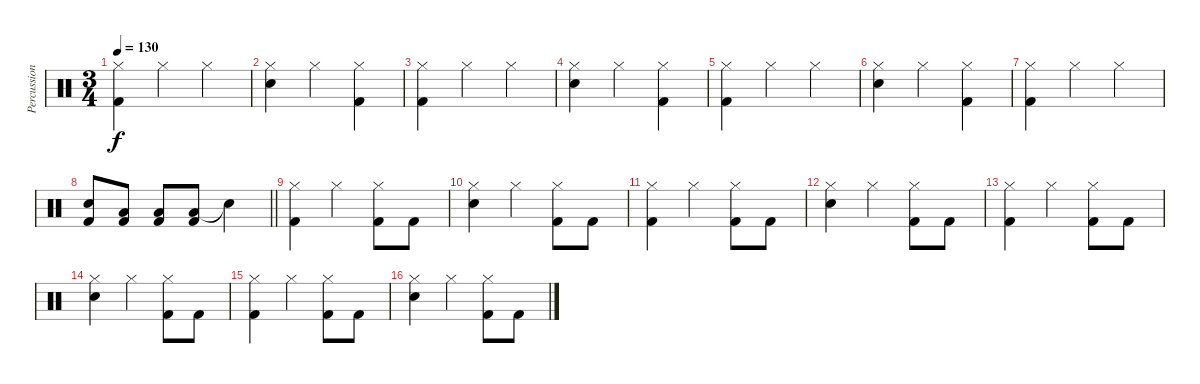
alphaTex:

\track ("Percussion" "Percussion") {instrument percussion}
\staff {score}
\articulation defaults
\ts (3 4)
\tempo 130
\clef neutral
\ks c
("Hi-Hat (closed)" "Kick (hit) 2").4{dy f} "Hi-Hat (closed)".4 "Hi-Hat (closed)".4 |
("Hi-Hat (closed)" "Electric Snare (hit)").4 "Hi-Hat (closed)".4 ("Hi-Hat (closed)" "Kick (hit) 2").4 |
("Hi-Hat (closed)" "Kick (hit) 2").4 "Hi-Hat (closed)".4 "Hi-Hat (closed)".4 |
("Hi-Hat (closed)" "Electric Snare (hit)").4 "Hi-Hat (closed)".4 ("Hi-Hat (closed)" "Kick (hit) 2").4 |
("Hi-Hat (closed)" "Kick (hit) 2").4 "Hi-Hat (closed)".4 "Hi-Hat (closed)".4 |
("Hi-Hat (closed)" "Electric Snare (hit)").4 "Hi-Hat (closed)".4 ("Hi-Hat (closed)" "Kick (hit) 2").4 |
("Hi-Hat (closed)" "Kick (hit) 2").4 "Hi-Hat (closed)".4 "Hi-Hat (closed)".4 |
\barLineRight lightlight
("Electric Snare (hit)" "Kick (hit) 2").8 ("Low Tom (hit)" "Kick (hit) 2").8 ("Low Tom (hit)" "Kick (hit) 2").8 ("Low Tom (hit)" "Kick (hit) 2").8 "Snare (hit)"{t}.4 |
("Hi-Hat (closed)" "Kick (hit) 2").4 "Hi-Hat (closed)".4 ("Hi-Hat (closed)" "Kick (hit) 2").8 "Kick (hit) 2".8 |
("Hi-Hat (closed)" "Electric Snare (hit)").4 "Hi-Hat (closed)".4 ("Hi-Hat (closed)" "Kick (hit) 2").8 "Kick (hit) 2".8 |
("Hi-Hat (closed)" "Kick (hit) 2").4 "Hi-Hat (closed)".4 ("Hi-Hat (closed)" "Kick (hit) 2").8 "Kick (hit) 2".8 |
("Hi-Hat (closed)" "Electric Snare (hit)").4 "Hi-Hat (closed)".4 ("Hi-Hat (closed)" "Kick (hit) 2").8 "Kick (hit) 2".8 |
("Hi-Hat (closed)" "Kick (hit) 2").4 "Hi-Hat (closed)".4 ("Hi-Hat (closed)" "Kick (hit) 2").8 "Kick (hit) 2".8 |
("Hi-Hat (closed)" "Electric Snare (hit)").4 "Hi-Hat (closed)".4 ("Hi-Hat (closed)" "Kick (hit) 2").8 "Kick (hit) 2".8 |
("Hi-Hat (closed)" "Kick (hit) 2").4 "Hi-Hat (closed)".4 ("Hi-Hat (closed)" "Kick (hit) 2").8 "Kick (hit) 2".8 |
("Hi-Hat (closed)" "Electric Snare (hit)").4 "Hi-Hat (closed)".4 ("Hi-Hat (closed)" "Kick (hit) 2").8 "Kick (hit) 2".8
